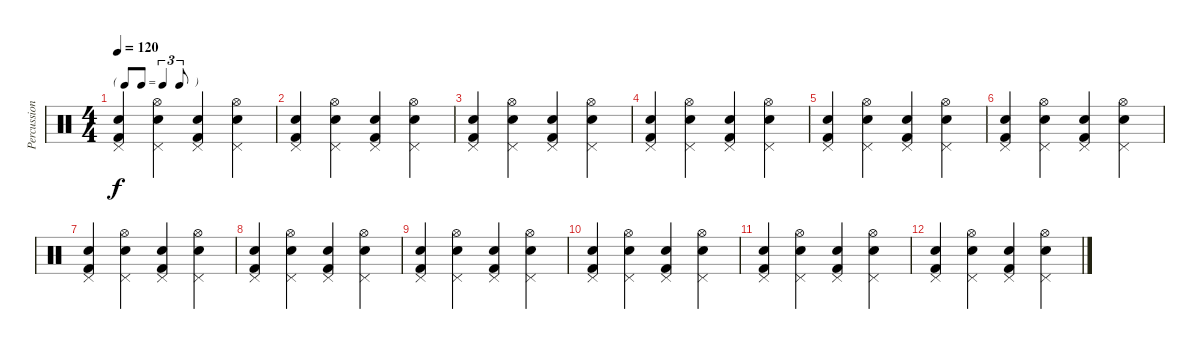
\track ("Percussions" "Percussion") {instrument percussion}
\staff {score}
\articulation defaults
\ts (4 4)
\tf triplet8th
\tempo 120
\clef neutral
\ks c
("Kick (hit) 2" "Snare (hit) 2" "Pedal Hi-Hat (hit)").4{dy f} ("Hi-Hat (open)" "Snare (hit) 2" "Pedal Hi-Hat (hit)").4 ("Kick (hit) 2" "Snare (hit) 2" "Pedal Hi-Hat (hit)").4 ("Hi-Hat (open)" "Snare (hit) 2" "Pedal Hi-Hat (hit)").4 |
("Kick (hit) 2" "Snare (hit) 2" "Pedal Hi-Hat (hit)").4 ("Hi-Hat (open)" "Snare (hit) 2" "Pedal Hi-Hat (hit)").4 ("Kick (hit) 2" "Snare (hit) 2" "Pedal Hi-Hat (hit)").4 ("Hi-Hat (open)" "Snare (hit) 2" "Pedal Hi-Hat (hit)").4 |
("Kick (hit) 2" "Snare (hit) 2" "Pedal Hi-Hat (hit)").4 ("Hi-Hat (open)" "Snare (hit) 2" "Pedal Hi-Hat (hit)").4 ("Kick (hit) 2" "Snare (hit) 2" "Pedal Hi-Hat (hit)").4 ("Hi-Hat (open)" "Snare (hit) 2" "Pedal Hi-Hat (hit)").4 |
("Kick (hit) 2" "Snare (hit) 2" "Pedal Hi-Hat (hit)").4 ("Hi-Hat (open)" "Snare (hit) 2" "Pedal Hi-Hat (hit)").4 ("Kick (hit) 2" "Snare (hit) 2" "Pedal Hi-Hat (hit)").4 ("Hi-Hat (open)" "Snare (hit) 2" "Pedal Hi-Hat (hit)").4 |
("Kick (hit) 2" "Snare (hit) 2" "Pedal Hi-Hat (hit)").4 ("Hi-Hat (open)" "Snare (hit) 2" "Pedal Hi-Hat (hit)").4 ("Kick (hit) 2" "Snare (hit) 2" "Pedal Hi-Hat (hit)").4 ("Hi-Hat (open)" "Snare (hit) 2" "Pedal Hi-Hat (hit)").4 |
("Kick (hit) 2" "Snare (hit) 2" "Pedal Hi-Hat (hit)").4 ("Hi-Hat (open)" "Snare (hit) 2" "Pedal Hi-Hat (hit)").4 ("Kick (hit) 2" "Snare (hit) 2" "Pedal Hi-Hat (hit)").4 ("Hi-Hat (open)" "Snare (hit) 2" "Pedal Hi-Hat (hit)").4 |
("Kick (hit) 2" "Snare (hit) 2" "Pedal Hi-Hat (hit)").4 ("Hi-Hat (open)" "Snare (hit) 2" "Pedal Hi-Hat (hit)").4 ("Kick (hit) 2" "Snare (hit) 2" "Pedal Hi-Hat (hit)").4 ("Hi-Hat (open)" "Snare (hit) 2" "Pedal Hi-Hat (hit)").4 |
("Kick (hit) 2" "Snare (hit) 2" "Pedal Hi-Hat (hit)").4 ("Hi-Hat (open)" "Snare (hit) 2" "Pedal Hi-Hat (hit)").4 ("Kick (hit) 2" "Snare (hit) 2" "Pedal Hi-Hat (hit)").4 ("Hi-Hat (open)" "Snare (hit) 2" "Pedal Hi-Hat (hit)").4 |
("Kick (hit) 2" "Snare (hit) 2" "Pedal Hi-Hat (hit)").4 ("Hi-Hat (open)" "Snare (hit) 2" "Pedal Hi-Hat (hit)").4 ("Kick (hit) 2" "Snare (hit) 2" "Pedal Hi-Hat (hit)").4 ("Hi-Hat (open)" "Snare (hit) 2" "Pedal Hi-Hat (hit)").4 |
("Kick (hit) 2" "Snare (hit) 2" "Pedal Hi-Hat (hit)").4 ("Hi-Hat (open)" "Snare (hit) 2" "Pedal Hi-Hat (hit)").4 ("Kick (hit) 2" "Snare (hit) 2" "Pedal Hi-Hat (hit)").4 ("Hi-Hat (open)" "Snare (hit) 2" "Pedal Hi-Hat (hit)").4 |
("Kick (hit) 2" "Snare (hit) 2" "Pedal Hi-Hat (hit)").4 ("Hi-Hat (open)" "Snare (hit) 2" "Pedal Hi-Hat (hit)").4 ("Kick (hit) 2" "Snare (hit) 2" "Pedal Hi-Hat (hit)").4 ("Hi-Hat (open)" "Snare (hit) 2" "Pedal Hi-Hat (hit)").4 |
("Kick (hit) 2" "Snare (hit) 2" "Pedal Hi-Hat (hit)").4 ("Hi-Hat (open)" "Snare (hit) 2" "Pedal Hi-Hat (hit)").4 ("Kick (hit) 2" "Snare (hit) 2" "Pedal Hi-Hat (hit)").4 ("Hi-Hat (open)" "Snare (hit) 2" "Pedal Hi-Hat (hit)").4
